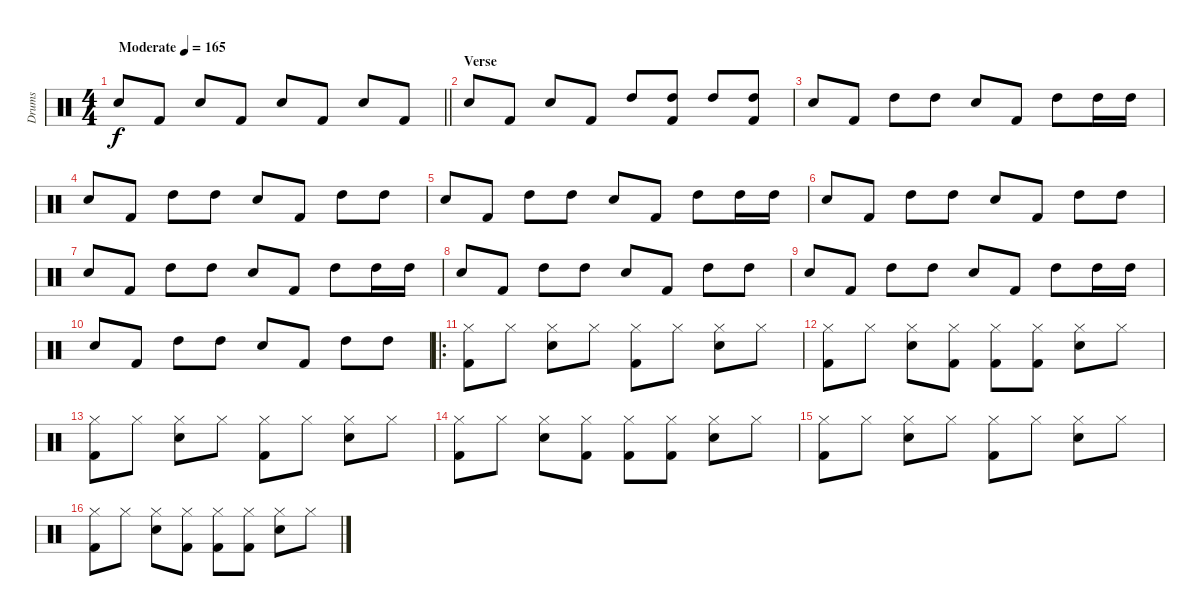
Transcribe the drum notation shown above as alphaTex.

\track ("Drums" "Drums") {instrument percussion}
\staff {score}
\articulation defaults
\ts (4 4)
\tempo (165 "Moderate")
\clef neutral
\barLineRight lightlight
\ks c "Snare (hit) 2".8{dy f} "Kick (hit) 2".8 "Snare (hit) 2".8 "Kick (hit) 2".8 "Snare (hit) 2".8 "Kick (hit) 2".8 "Snare (hit) 2".8 "Kick (hit) 2".8
|
\section ("" "Verse")
"Snare (hit) 2".8 "Kick (hit) 2".8 "Snare (hit) 2".8 "Kick (hit) 2".8 "High Tom (hit)".8 ("High Tom (hit)" "Kick (hit) 2").8 "High Tom (hit)".8 ("High Tom (hit)" "Kick (hit) 2").8 |
"Snare (hit) 2".8 "Kick (hit) 2".8 "High Tom (hit)".8 "High Tom (hit)".8 "Snare (hit) 2".8 "Kick (hit) 2".8 "High Tom (hit)".8 "High Tom (hit)".16 "High Tom (hit)".16 |
"Snare (hit) 2".8 "Kick (hit) 2".8 "High Tom (hit)".8 "High Tom (hit)".8 "Snare (hit) 2".8 "Kick (hit) 2".8 "High Tom (hit)".8 "High Tom (hit)".8 |
"Snare (hit) 2".8 "Kick (hit) 2".8 "High Tom (hit)".8 "High Tom (hit)".8 "Snare (hit) 2".8 "Kick (hit) 2".8 "High Tom (hit)".8 "High Tom (hit)".16 "High Tom (hit)".16 |
"Snare (hit) 2".8 "Kick (hit) 2".8 "High Tom (hit)".8 "High Tom (hit)".8 "Snare (hit) 2".8 "Kick (hit) 2".8 "High Tom (hit)".8 "High Tom (hit)".8 |
"Snare (hit) 2".8 "Kick (hit) 2".8 "High Tom (hit)".8 "High Tom (hit)".8 "Snare (hit) 2".8 "Kick (hit) 2".8 "High Tom (hit)".8 "High Tom (hit)".16 "High Tom (hit)".16 |
"Snare (hit) 2".8 "Kick (hit) 2".8 "High Tom (hit)".8 "High Tom (hit)".8 "Snare (hit) 2".8 "Kick (hit) 2".8 "High Tom (hit)".8 "High Tom (hit)".8 |
"Snare (hit) 2".8 "Kick (hit) 2".8 "High Tom (hit)".8 "High Tom (hit)".8 "Snare (hit) 2".8 "Kick (hit) 2".8 "High Tom (hit)".8 "High Tom (hit)".16 "High Tom (hit)".16 |
"Snare (hit) 2".8 "Kick (hit) 2".8 "High Tom (hit)".8 "High Tom (hit)".8 "Snare (hit) 2".8 "Kick (hit) 2".8 "High Tom (hit)".8 "High Tom (hit)".8 |
\ro
("Hi-Hat (closed)" "Kick (hit) 2").8 "Hi-Hat (closed)".8 ("Hi-Hat (closed)" "Snare (hit) 2").8 "Hi-Hat (closed)".8 ("Hi-Hat (closed)" "Kick (hit) 2").8 "Hi-Hat (closed)".8 ("Hi-Hat (closed)" "Snare (hit) 2").8 "Hi-Hat (closed)".8 |
("Hi-Hat (closed)" "Kick (hit) 2").8 "Hi-Hat (closed)".8 ("Hi-Hat (closed)" "Snare (hit) 2").8 ("Hi-Hat (closed)" "Kick (hit) 2").8 ("Hi-Hat (closed)" "Kick (hit) 2").8 ("Hi-Hat (closed)" "Kick (hit) 2").8 ("Hi-Hat (closed)" "Snare (hit) 2").8 "Hi-Hat (closed)".8 |
("Hi-Hat (closed)" "Kick (hit) 2").8 "Hi-Hat (closed)".8 ("Hi-Hat (closed)" "Snare (hit) 2").8 "Hi-Hat (closed)".8 ("Hi-Hat (closed)" "Kick (hit) 2").8 "Hi-Hat (closed)".8 ("Hi-Hat (closed)" "Snare (hit) 2").8 "Hi-Hat (closed)".8 |
("Hi-Hat (closed)" "Kick (hit) 2").8 "Hi-Hat (closed)".8 ("Hi-Hat (closed)" "Snare (hit) 2").8 ("Hi-Hat (closed)" "Kick (hit) 2").8 ("Hi-Hat (closed)" "Kick (hit) 2").8 ("Hi-Hat (closed)" "Kick (hit) 2").8 ("Hi-Hat (closed)" "Snare (hit) 2").8 "Hi-Hat (closed)".8 |
("Hi-Hat (closed)" "Kick (hit) 2").8 "Hi-Hat (closed)".8 ("Hi-Hat (closed)" "Snare (hit) 2").8 "Hi-Hat (closed)".8 ("Hi-Hat (closed)" "Kick (hit) 2").8 "Hi-Hat (closed)".8 ("Hi-Hat (closed)" "Snare (hit) 2").8 "Hi-Hat (closed)".8 |
("Hi-Hat (closed)" "Kick (hit) 2").8 "Hi-Hat (closed)".8 ("Hi-Hat (closed)" "Snare (hit) 2").8 ("Hi-Hat (closed)" "Kick (hit) 2").8 ("Hi-Hat (closed)" "Kick (hit) 2").8 ("Hi-Hat (closed)" "Kick (hit) 2").8 ("Hi-Hat (closed)" "Snare (hit) 2").8 "Hi-Hat (closed)".8
